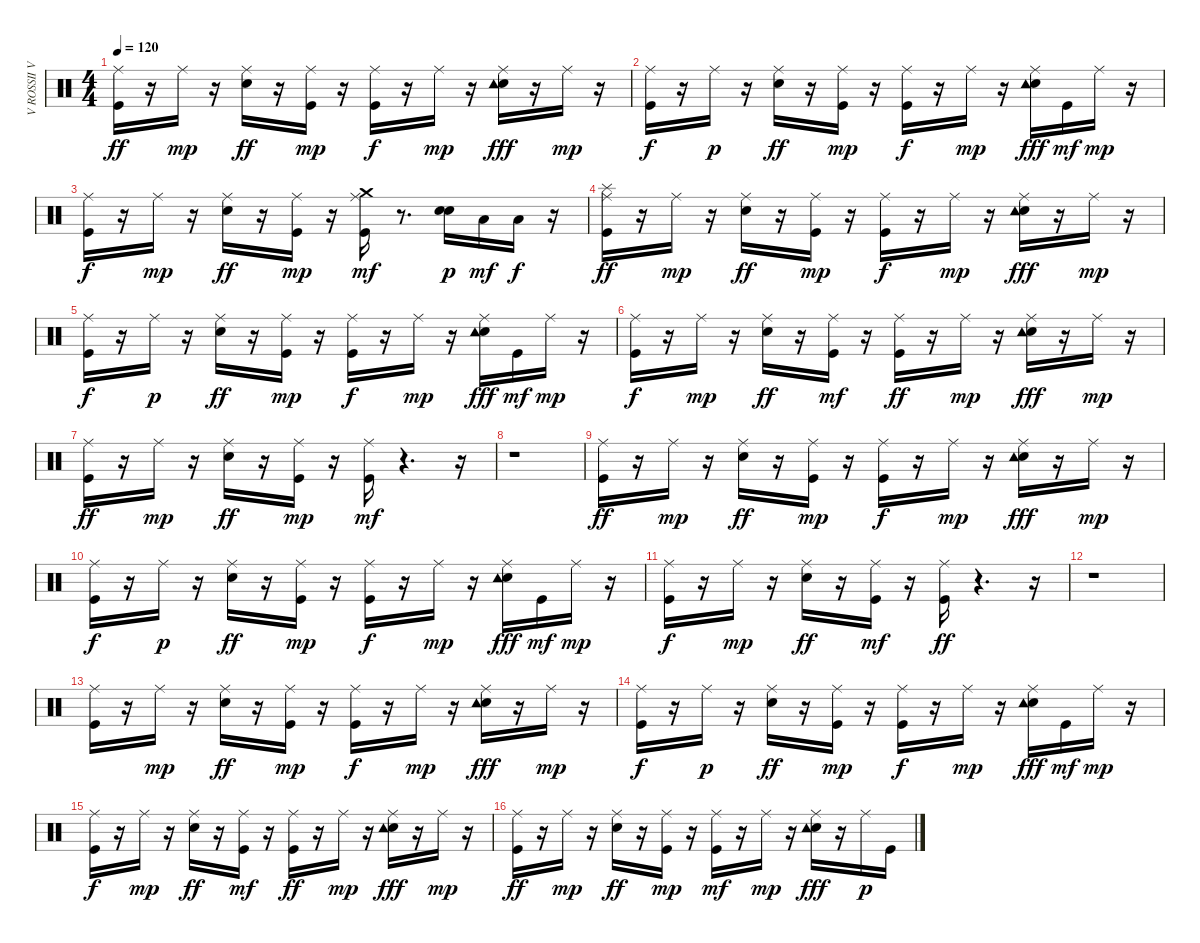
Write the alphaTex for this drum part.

\track ("V ROSSII VECHERA     " "V ROSSII V") {instrument percussion}
\staff {score}
\articulation defaults
\ts (4 4)
\tempo 120
\clef neutral
\ks c
("Ride (middle)" "Kick (hit)").16{dy ff} r.16 "Ride (middle)".16{dy mp} r.16 ("Snare (hit) 2" "Ride (middle)").16{dy ff} r.16 ("Kick (hit)" "Ride (middle)").16{dy mp} r.16 ("Kick (hit)" "Ride (middle)").16{dy f} r.16 "Ride (middle)".16{dy mp} r.16 ("Snare (hit) 2" "Ride (middle)" "Tambourine (hit)").16{dy fff} r.16 "Ride (middle)".16{dy mp} r.16 |
("Ride (middle)" "Kick (hit)").16{dy f} r.16 "Ride (middle)".16{dy p} r.16 ("Snare (hit) 2" "Ride (middle)").16{dy ff} r.16 ("Ride (middle)" "Kick (hit)").16{dy mp} r.16 ("Ride (middle)" "Kick (hit)").16{dy f} r.16 "Ride (middle)".16{dy mp} r.16 ("Snare (hit) 2" "Ride (middle)" "Tambourine (hit)").16{dy fff} "Kick (hit)".16{dy mf} "Ride (middle)".16{dy mp} r.16 |
("Kick (hit)" "Ride (middle)").16{dy f} r.16 "Ride (middle)".16{dy mp} r.16 ("Snare (hit) 2" "Ride (middle)").16{dy ff} r.16 ("Kick (hit)" "Ride (middle)").16{dy mp} r.16 ("Crash medium (hit)" "Kick (hit)" "Ride (middle)").16{dy mf} r.8{d} ("Snare (hit) 2" "Snare (hit) 2").16{dy p} "Low Tom (hit)".16{dy mf} "Low Floor Tom (hit)".16{dy f} r.16 |
("Splash (hit)" "Ride (middle)" "Kick (hit)").16{dy ff} r.16 "Ride (middle)".16{dy mp} r.16 ("Snare (hit) 2" "Ride (middle)").16{dy ff} r.16 ("Kick (hit)" "Ride (middle)").16{dy mp} r.16 ("Kick (hit)" "Ride (middle)").16{dy f} r.16 "Ride (middle)".16{dy mp} r.16 ("Snare (hit) 2" "Ride (middle)" "Tambourine (hit)").16{dy fff} r.16 "Ride (middle)".16{dy mp} r.16 |
("Ride (middle)" "Kick (hit)").16{dy f} r.16 "Ride (middle)".16{dy p} r.16 ("Snare (hit) 2" "Ride (middle)").16{dy ff} r.16 ("Ride (middle)" "Kick (hit)").16{dy mp} r.16 ("Ride (middle)" "Kick (hit)").16{dy f} r.16 "Ride (middle)".16{dy mp} r.16 ("Snare (hit) 2" "Ride (middle)" "Tambourine (hit)").16{dy fff} "Kick (hit)".16{dy mf} "Ride (middle)".16{dy mp} r.16 |
("Kick (hit)" "Ride (middle)").16{dy f} r.16 "Ride (middle)".16{dy mp} r.16 ("Snare (hit) 2" "Ride (middle)").16{dy ff} r.16 ("Ride (middle)" "Kick (hit)").16{dy mf} r.16 ("Ride (middle)" "Kick (hit)").16{dy ff} r.16 "Ride (middle)".16{dy mp} r.16 ("Snare (hit) 2" "Ride (middle)" "Tambourine (hit)").16{dy fff} r.16 "Ride (middle)".16{dy mp} r.16 |
("Kick (hit)" "Ride (middle)").16{dy ff} r.16 "Ride (middle)".16{dy mp} r.16 ("Snare (hit) 2" "Ride (middle)").16{dy ff} r.16 ("Kick (hit)" "Ride (middle)").16{dy mp} r.16 ("Kick (hit)" "Ride (middle)").16{dy mf} r.4{d} r.16 |
r.1 |
("Ride (middle)" "Kick (hit)").16{dy ff} r.16 "Ride (middle)".16{dy mp} r.16 ("Snare (hit) 2" "Ride (middle)").16{dy ff} r.16 ("Kick (hit)" "Ride (middle)").16{dy mp} r.16 ("Kick (hit)" "Ride (middle)").16{dy f} r.16 "Ride (middle)".16{dy mp} r.16 ("Snare (hit) 2" "Ride (middle)" "Tambourine (hit)").16{dy fff} r.16 "Ride (middle)".16{dy mp} r.16 |
("Ride (middle)" "Kick (hit)").16{dy f} r.16 "Ride (middle)".16{dy p} r.16 ("Snare (hit) 2" "Ride (middle)").16{dy ff} r.16 ("Ride (middle)" "Kick (hit)").16{dy mp} r.16 ("Ride (middle)" "Kick (hit)").16{dy f} r.16 "Ride (middle)".16{dy mp} r.16 ("Snare (hit) 2" "Ride (middle)" "Tambourine (hit)").16{dy fff} "Kick (hit)".16{dy mf} "Ride (middle)".16{dy mp} r.16 |
("Kick (hit)" "Ride (middle)").16{dy f} r.16 "Ride (middle)".16{dy mp} r.16 ("Snare (hit) 2" "Ride (middle)").16{dy ff} r.16 ("Ride (middle)" "Kick (hit)").16{dy mf} r.16 ("Ride (middle)" "Kick (hit)").16{dy ff} r.4{d} r.16 |
r.1 |
("Ride (middle)" "Kick (hit)").16 r.16 "Ride (middle)".16{dy mp} r.16 ("Snare (hit) 2" "Ride (middle)").16{dy ff} r.16 ("Kick (hit)" "Ride (middle)").16{dy mp} r.16 ("Kick (hit)" "Ride (middle)").16{dy f} r.16 "Ride (middle)".16{dy mp} r.16 ("Snare (hit) 2" "Ride (middle)" "Tambourine (hit)").16{dy fff} r.16 "Ride (middle)".16{dy mp} r.16 |
("Ride (middle)" "Kick (hit)").16{dy f} r.16 "Ride (middle)".16{dy p} r.16 ("Snare (hit) 2" "Ride (middle)").16{dy ff} r.16 ("Ride (middle)" "Kick (hit)").16{dy mp} r.16 ("Ride (middle)" "Kick (hit)").16{dy f} r.16 "Ride (middle)".16{dy mp} r.16 ("Snare (hit) 2" "Ride (middle)" "Tambourine (hit)").16{dy fff} "Kick (hit)".16{dy mf} "Ride (middle)".16{dy mp} r.16 |
("Kick (hit)" "Ride (middle)").16{dy f} r.16 "Ride (middle)".16{dy mp} r.16 ("Snare (hit) 2" "Ride (middle)").16{dy ff} r.16 ("Ride (middle)" "Kick (hit)").16{dy mf} r.16 ("Ride (middle)" "Kick (hit)").16{dy ff} r.16 "Ride (middle)".16{dy mp} r.16 ("Snare (hit) 2" "Ride (middle)" "Tambourine (hit)").16{dy fff} r.16 "Ride (middle)".16{dy mp} r.16 |
("Kick (hit)" "Ride (middle)").16{dy ff} r.16 "Ride (middle)".16{dy mp} r.16 ("Snare (hit) 2" "Ride (middle)").16{dy ff} r.16 ("Kick (hit)" "Ride (middle)").16{dy mp} r.16 ("Kick (hit)" "Ride (middle)").16{dy mf} r.16 "Ride (middle)".16{dy mp} r.16 ("Snare (hit) 2" "Ride (middle)" "Tambourine (hit)").16{dy fff} r.16 "Ride (middle)".16{dy p} "Kick (hit)".16
